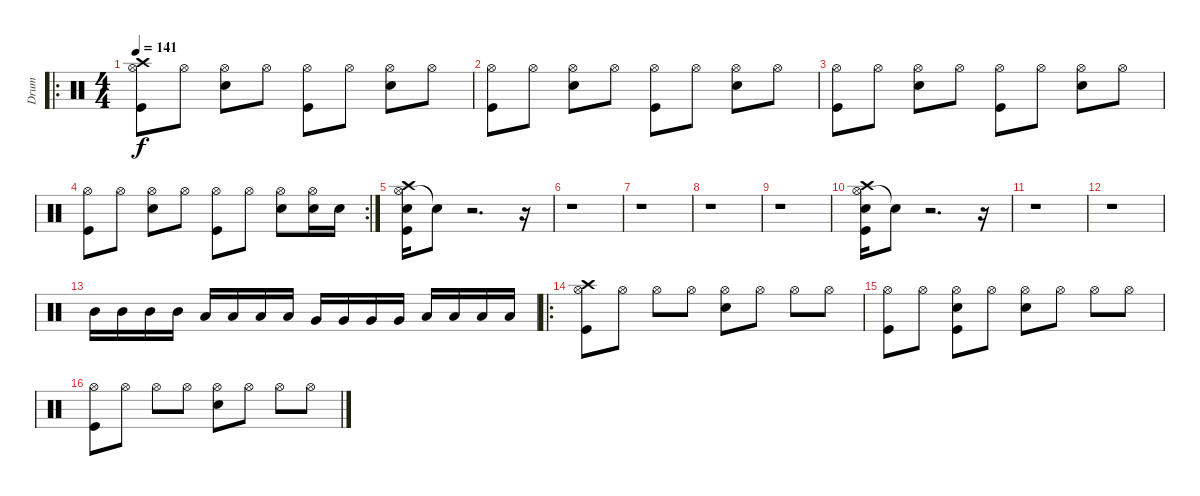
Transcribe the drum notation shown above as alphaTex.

\track ("Drum" "Drum") {instrument percussion}
\staff {score}
\articulation defaults
\ro
\ts (4 4)
\tempo 141
\clef neutral
\ks c
("Hi-Hat (open)" "Crash high (hit)" "Kick (hit)").8{dy f} "Hi-Hat (open)".8 ("Hi-Hat (open)" "Electric Snare (hit)").8 "Hi-Hat (open)".8 ("Hi-Hat (open)" "Kick (hit)").8 "Hi-Hat (open)".8 ("Hi-Hat (open)" "Electric Snare (hit)").8 "Hi-Hat (open)".8 |
("Hi-Hat (open)" "Kick (hit)").8 "Hi-Hat (open)".8 ("Hi-Hat (open)" "Electric Snare (hit)").8 "Hi-Hat (open)".8 ("Hi-Hat (open)" "Kick (hit)").8 "Hi-Hat (open)".8 ("Hi-Hat (open)" "Electric Snare (hit)").8 "Hi-Hat (open)".8 |
("Hi-Hat (open)" "Kick (hit)").8 "Hi-Hat (open)".8 ("Hi-Hat (open)" "Electric Snare (hit)").8 "Hi-Hat (open)".8 ("Hi-Hat (open)" "Kick (hit)").8 "Hi-Hat (open)".8 ("Hi-Hat (open)" "Electric Snare (hit)").8 "Hi-Hat (open)".8 |
\rc 2
("Hi-Hat (open)" "Kick (hit)").8 "Hi-Hat (open)".8 ("Hi-Hat (open)" "Electric Snare (hit)").8 "Hi-Hat (open)".8 ("Hi-Hat (open)" "Kick (hit)").8 "Hi-Hat (open)".8 ("Hi-Hat (open)" "Electric Snare (hit)").8 ("Hi-Hat (open)" "Electric Snare (hit)").16 "Electric Snare (hit)".16 |
("Hi-Hat (open)" "Crash high (hit)" "Electric Snare (hit)" "Kick (hit)").16 "Snare (hit)"{t}.8 r.2{d} r.16 |
r.1 |
r.1 |
r.1 |
r.1 |
("Hi-Hat (open)" "Crash high (hit)" "Electric Snare (hit)" "Kick (hit)").16 "Snare (hit)"{t}.8 r.2{d} r.16 |
r.1 |
r.1 |
"Mid Tom (hit)".16 "Mid Tom (hit)".16 "Mid Tom (hit)".16 "Mid Tom (hit)".16 "Low Tom (hit)".16 "Low Tom (hit)".16 "Low Tom (hit)".16 "Low Tom (hit)".16 "Very Low Tom (hit)".16 "Very Low Tom (hit)".16 "Very Low Tom (hit)".16 "Very Low Tom (hit)".16 "Low Floor Tom (hit)".16 "Low Floor Tom (hit)".16 "Low Floor Tom (hit)".16 "Low Floor Tom (hit)".16 |
\ro
("Hi-Hat (open)" "Crash high (hit)" "Kick (hit)").8 "Hi-Hat (open)".8 "Hi-Hat (open)".8 "Hi-Hat (open)".8 ("Hi-Hat (open)" "Electric Snare (hit)").8 "Hi-Hat (open)".8 "Hi-Hat (open)".8 "Hi-Hat (open)".8 |
("Hi-Hat (open)" "Kick (hit)").8 "Hi-Hat (open)".8 ("Hi-Hat (open)" "Electric Snare (hit)" "Kick (hit)").8 "Hi-Hat (open)".8 ("Hi-Hat (open)" "Electric Snare (hit)").8 "Hi-Hat (open)".8 "Hi-Hat (open)".8 "Hi-Hat (open)".8 |
("Hi-Hat (open)" "Kick (hit)").8 "Hi-Hat (open)".8 "Hi-Hat (open)".8 "Hi-Hat (open)".8 ("Hi-Hat (open)" "Electric Snare (hit)").8 "Hi-Hat (open)".8 "Hi-Hat (open)".8 "Hi-Hat (open)".8
